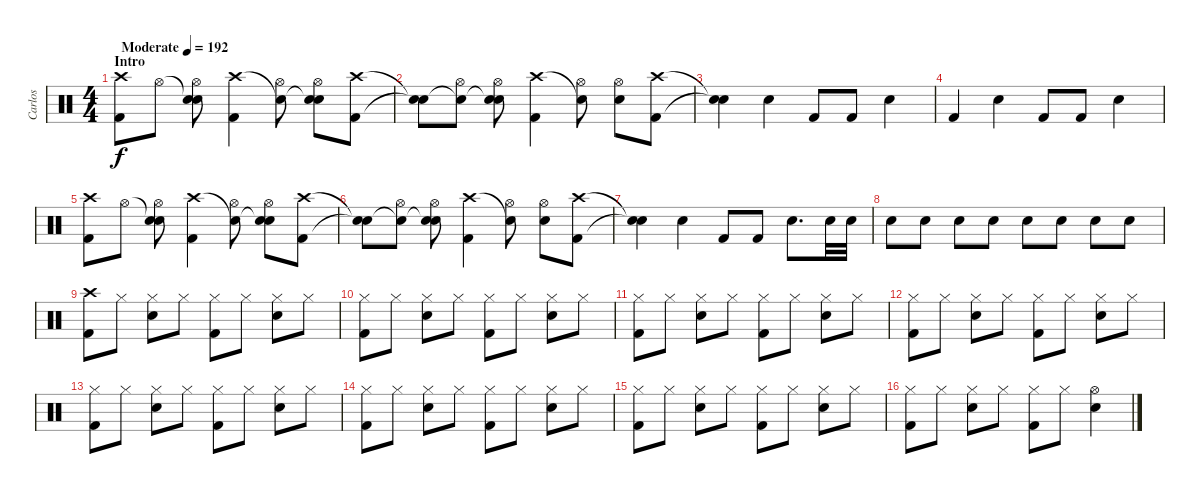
\track ("Carlos" "Carlos") {instrument percussion}
\staff {score}
\articulation defaults
\ts (4 4)
\section ("" "Intro")
\tempo (192 "Moderate")
\clef neutral
\ks c
("Crash high (hit)" "Kick (hit) 2").8{dy f} "Hi-Hat (open)".8 ("Snare (hit)"{t} "Hi-Hat (open)" "Snare (hit) 2").8 ("Crash high (hit)" "Kick (hit) 2").4 ("Snare (hit)"{t} "Hi-Hat (open)").8 ("Snare (hit)"{t} "Hi-Hat (open)" "Snare (hit) 2").8 ("Crash high (hit)" "Kick (hit) 2").8 |
("Snare (hit)"{t} "Snare (hit)"{t}).8 ("Snare (hit)"{t} "Hi-Hat (open)").8 ("Snare (hit)"{t} "Hi-Hat (open)" "Snare (hit) 2").8 ("Crash high (hit)" "Kick (hit) 2").4 ("Snare (hit)"{t} "Hi-Hat (open)").8 ("Hi-Hat (open)" "Snare (hit) 2").8 ("Crash high (hit)" "Kick (hit) 2").8 |
("Snare (hit)"{t} "Snare (hit)"{t}).4 "Snare (hit) 2".4 "Kick (hit) 2".8 "Kick (hit) 2".8 "Snare (hit) 2".4 |
"Kick (hit) 2".4 "Snare (hit) 2".4 "Kick (hit) 2".8 "Kick (hit) 2".8 "Snare (hit) 2".4 |
("Crash high (hit)" "Kick (hit) 2").8 "Hi-Hat (open)".8 ("Snare (hit)"{t} "Hi-Hat (open)" "Snare (hit) 2").8 ("Crash high (hit)" "Kick (hit) 2").4 ("Snare (hit)"{t} "Hi-Hat (open)").8 ("Snare (hit)"{t} "Hi-Hat (open)" "Snare (hit) 2").8 ("Crash high (hit)" "Kick (hit) 2").8 |
("Snare (hit)"{t} "Snare (hit)"{t}).8 ("Snare (hit)"{t} "Hi-Hat (open)").8 ("Snare (hit)"{t} "Hi-Hat (open)" "Snare (hit) 2").8 ("Crash high (hit)" "Kick (hit) 2").4 ("Snare (hit)"{t} "Hi-Hat (open)").8 ("Hi-Hat (open)" "Snare (hit) 2").8 ("Crash high (hit)" "Kick (hit) 2").8 |
("Snare (hit)"{t} "Snare (hit)"{t}).4 "Snare (hit) 2".4 "Kick (hit) 2".8 "Kick (hit) 2".8 "Snare (hit) 2".8{d} "Snare (hit) 2".32 "Snare (hit) 2".32 |
"Snare (hit) 2".8 "Snare (hit) 2".8 "Snare (hit) 2".8 "Snare (hit) 2".8 "Snare (hit) 2".8 "Snare (hit) 2".8 "Snare (hit) 2".8 "Snare (hit) 2".8 |
("Crash high (hit)" "Kick (hit) 2").8 "Hi-Hat (closed)".8 ("Hi-Hat (closed)" "Snare (hit) 2").8 "Hi-Hat (closed)".8 ("Hi-Hat (closed)" "Kick (hit) 2").8 "Hi-Hat (closed)".8 ("Hi-Hat (closed)" "Snare (hit) 2").8 "Hi-Hat (closed)".8 |
("Hi-Hat (closed)" "Kick (hit) 2").8 "Hi-Hat (closed)".8 ("Hi-Hat (closed)" "Snare (hit) 2").8 "Hi-Hat (closed)".8 ("Hi-Hat (closed)" "Kick (hit) 2").8 "Hi-Hat (closed)".8 ("Hi-Hat (closed)" "Snare (hit) 2").8 "Hi-Hat (closed)".8 |
("Hi-Hat (closed)" "Kick (hit) 2").8 "Hi-Hat (closed)".8 ("Hi-Hat (closed)" "Snare (hit) 2").8 "Hi-Hat (closed)".8 ("Hi-Hat (closed)" "Kick (hit) 2").8 "Hi-Hat (closed)".8 ("Hi-Hat (closed)" "Snare (hit) 2").8 "Hi-Hat (closed)".8 |
("Hi-Hat (closed)" "Kick (hit) 2").8 "Hi-Hat (closed)".8 ("Hi-Hat (closed)" "Snare (hit) 2").8 "Hi-Hat (closed)".8 ("Hi-Hat (closed)" "Kick (hit) 2").8 "Hi-Hat (closed)".8 ("Hi-Hat (closed)" "Snare (hit) 2").8 "Hi-Hat (closed)".8 |
("Hi-Hat (closed)" "Kick (hit) 2").8 "Hi-Hat (closed)".8 ("Hi-Hat (closed)" "Snare (hit) 2").8 "Hi-Hat (closed)".8 ("Hi-Hat (closed)" "Kick (hit) 2").8 "Hi-Hat (closed)".8 ("Hi-Hat (closed)" "Snare (hit) 2").8 "Hi-Hat (closed)".8 |
("Hi-Hat (closed)" "Kick (hit) 2").8 "Hi-Hat (closed)".8 ("Hi-Hat (closed)" "Snare (hit) 2").8 "Hi-Hat (closed)".8 ("Hi-Hat (closed)" "Kick (hit) 2").8 "Hi-Hat (closed)".8 ("Hi-Hat (closed)" "Snare (hit) 2").8 "Hi-Hat (closed)".8 |
("Hi-Hat (closed)" "Kick (hit) 2").8 "Hi-Hat (closed)".8 ("Hi-Hat (closed)" "Snare (hit) 2").8 "Hi-Hat (closed)".8 ("Hi-Hat (closed)" "Kick (hit) 2").8 "Hi-Hat (closed)".8 ("Hi-Hat (closed)" "Snare (hit) 2").8 "Hi-Hat (closed)".8 |
("Hi-Hat (closed)" "Kick (hit) 2").8 "Hi-Hat (closed)".8 ("Hi-Hat (closed)" "Snare (hit) 2").8 "Hi-Hat (closed)".8 ("Hi-Hat (closed)" "Kick (hit) 2").8 "Hi-Hat (closed)".8 ("Hi-Hat (open)" "Snare (hit) 2").4
